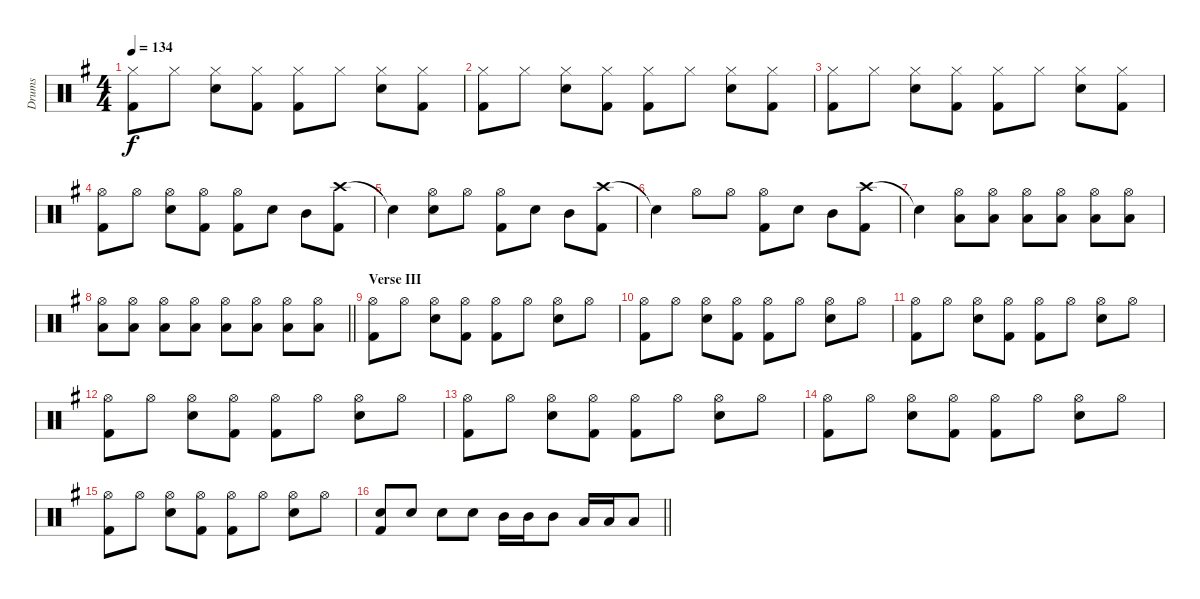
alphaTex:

\track ("Drums" "Drums") {instrument percussion}
\staff {score}
\articulation defaults
\ts (4 4)
\tempo 134
\clef neutral
\ks g
("Hi-Hat (closed)" "Kick (hit) 2").8{dy f} "Hi-Hat (closed)".8 ("Hi-Hat (closed)" "Snare (hit) 2").8 ("Hi-Hat (closed)" "Kick (hit) 2").8 ("Hi-Hat (closed)" "Kick (hit) 2").8 "Hi-Hat (closed)".8 ("Hi-Hat (closed)" "Snare (hit) 2").8 ("Hi-Hat (closed)" "Kick (hit) 2").8 |
("Hi-Hat (closed)" "Kick (hit) 2").8 "Hi-Hat (closed)".8 ("Hi-Hat (closed)" "Snare (hit) 2").8 ("Hi-Hat (closed)" "Kick (hit) 2").8 ("Hi-Hat (closed)" "Kick (hit) 2").8 "Hi-Hat (closed)".8 ("Hi-Hat (closed)" "Snare (hit) 2").8 ("Hi-Hat (closed)" "Kick (hit) 2").8 |
("Hi-Hat (closed)" "Kick (hit) 2").8 "Hi-Hat (closed)".8 ("Hi-Hat (closed)" "Snare (hit) 2").8 ("Hi-Hat (closed)" "Kick (hit) 2").8 ("Hi-Hat (closed)" "Kick (hit) 2").8 "Hi-Hat (closed)".8 ("Hi-Hat (closed)" "Snare (hit) 2").8 ("Hi-Hat (closed)" "Kick (hit) 2").8 |
("Hi-Hat (open)" "Kick (hit) 2").8 "Hi-Hat (open)".8 ("Hi-Hat (open)" "Snare (hit) 2").8 ("Hi-Hat (open)" "Kick (hit) 2").8 ("Hi-Hat (open)" "Kick (hit) 2").8 "Snare (hit) 2".8 "Mid Tom (hit)".8 ("Crash high (hit)" "Kick (hit) 2").8 |
"Snare (hit)"{t}.4 ("Hi-Hat (open)" "Snare (hit) 2").8 "Hi-Hat (open)".8 ("Hi-Hat (open)" "Kick (hit) 2").8 "Snare (hit) 2".8 "Mid Tom (hit)".8 ("Crash high (hit)" "Kick (hit) 2").8 |
"Snare (hit)"{t}.4 "Hi-Hat (open)".8 "Hi-Hat (open)".8 ("Hi-Hat (open)" "Kick (hit) 2").8 "Snare (hit) 2".8 "Mid Tom (hit)".8 ("Crash high (hit)" "Kick (hit) 2").8 |
"Snare (hit)"{t}.4 ("Hi-Hat (open)" "Low Floor Tom (hit)").8 ("Hi-Hat (open)" "Low Floor Tom (hit)").8 ("Hi-Hat (open)" "Low Floor Tom (hit)").8 ("Hi-Hat (open)" "Low Floor Tom (hit)").8 ("Hi-Hat (open)" "Low Floor Tom (hit)").8 ("Hi-Hat (open)" "Low Floor Tom (hit)").8 |
\barLineRight lightlight
("Hi-Hat (open)" "Low Floor Tom (hit)").8 ("Hi-Hat (open)" "Low Floor Tom (hit)").8 ("Hi-Hat (open)" "Low Floor Tom (hit)").8 ("Hi-Hat (open)" "Low Floor Tom (hit)").8 ("Hi-Hat (open)" "Low Floor Tom (hit)").8 ("Hi-Hat (open)" "Low Floor Tom (hit)").8 ("Hi-Hat (open)" "Low Floor Tom (hit)").8 ("Hi-Hat (open)" "Low Floor Tom (hit)").8 |
\section ("" "Verse III")
("Hi-Hat (open)" "Kick (hit) 2").8 "Hi-Hat (open)".8 ("Hi-Hat (open)" "Snare (hit) 2").8 ("Hi-Hat (open)" "Kick (hit) 2").8 ("Hi-Hat (open)" "Kick (hit) 2").8 "Hi-Hat (open)".8 ("Hi-Hat (open)" "Snare (hit) 2").8 "Hi-Hat (open)".8 |
("Hi-Hat (open)" "Kick (hit) 2").8 "Hi-Hat (open)".8 ("Hi-Hat (open)" "Snare (hit) 2").8 ("Hi-Hat (open)" "Kick (hit) 2").8 ("Hi-Hat (open)" "Kick (hit) 2").8 "Hi-Hat (open)".8 ("Hi-Hat (open)" "Snare (hit) 2").8 "Hi-Hat (open)".8 |
("Hi-Hat (open)" "Kick (hit) 2").8 "Hi-Hat (open)".8 ("Hi-Hat (open)" "Snare (hit) 2").8 ("Hi-Hat (open)" "Kick (hit) 2").8 ("Hi-Hat (open)" "Kick (hit) 2").8 "Hi-Hat (open)".8 ("Hi-Hat (open)" "Snare (hit) 2").8 "Hi-Hat (open)".8 |
("Hi-Hat (open)" "Kick (hit) 2").8 "Hi-Hat (open)".8 ("Hi-Hat (open)" "Snare (hit) 2").8 ("Hi-Hat (open)" "Kick (hit) 2").8 ("Hi-Hat (open)" "Kick (hit) 2").8 "Hi-Hat (open)".8 ("Hi-Hat (open)" "Snare (hit) 2").8 "Hi-Hat (open)".8 |
("Hi-Hat (open)" "Kick (hit) 2").8 "Hi-Hat (open)".8 ("Hi-Hat (open)" "Snare (hit) 2").8 ("Hi-Hat (open)" "Kick (hit) 2").8 ("Hi-Hat (open)" "Kick (hit) 2").8 "Hi-Hat (open)".8 ("Hi-Hat (open)" "Snare (hit) 2").8 "Hi-Hat (open)".8 |
("Hi-Hat (open)" "Kick (hit) 2").8 "Hi-Hat (open)".8 ("Hi-Hat (open)" "Snare (hit) 2").8 ("Hi-Hat (open)" "Kick (hit) 2").8 ("Hi-Hat (open)" "Kick (hit) 2").8 "Hi-Hat (open)".8 ("Hi-Hat (open)" "Snare (hit) 2").8 "Hi-Hat (open)".8 |
("Hi-Hat (open)" "Kick (hit) 2").8 "Hi-Hat (open)".8 ("Hi-Hat (open)" "Snare (hit) 2").8 ("Hi-Hat (open)" "Kick (hit) 2").8 ("Hi-Hat (open)" "Kick (hit) 2").8 "Hi-Hat (open)".8 ("Hi-Hat (open)" "Snare (hit) 2").8 "Hi-Hat (open)".8 |
\barLineRight lightlight
("Snare (hit) 2" "Kick (hit) 2").8 "Snare (hit) 2".8 "Snare (hit) 2".8 "Snare (hit) 2".8 "Mid Tom (hit)".16 "Mid Tom (hit)".16 "Mid Tom (hit)".8 "Low Tom (hit)".16 "Low Tom (hit)".16 "Low Tom (hit)".8
